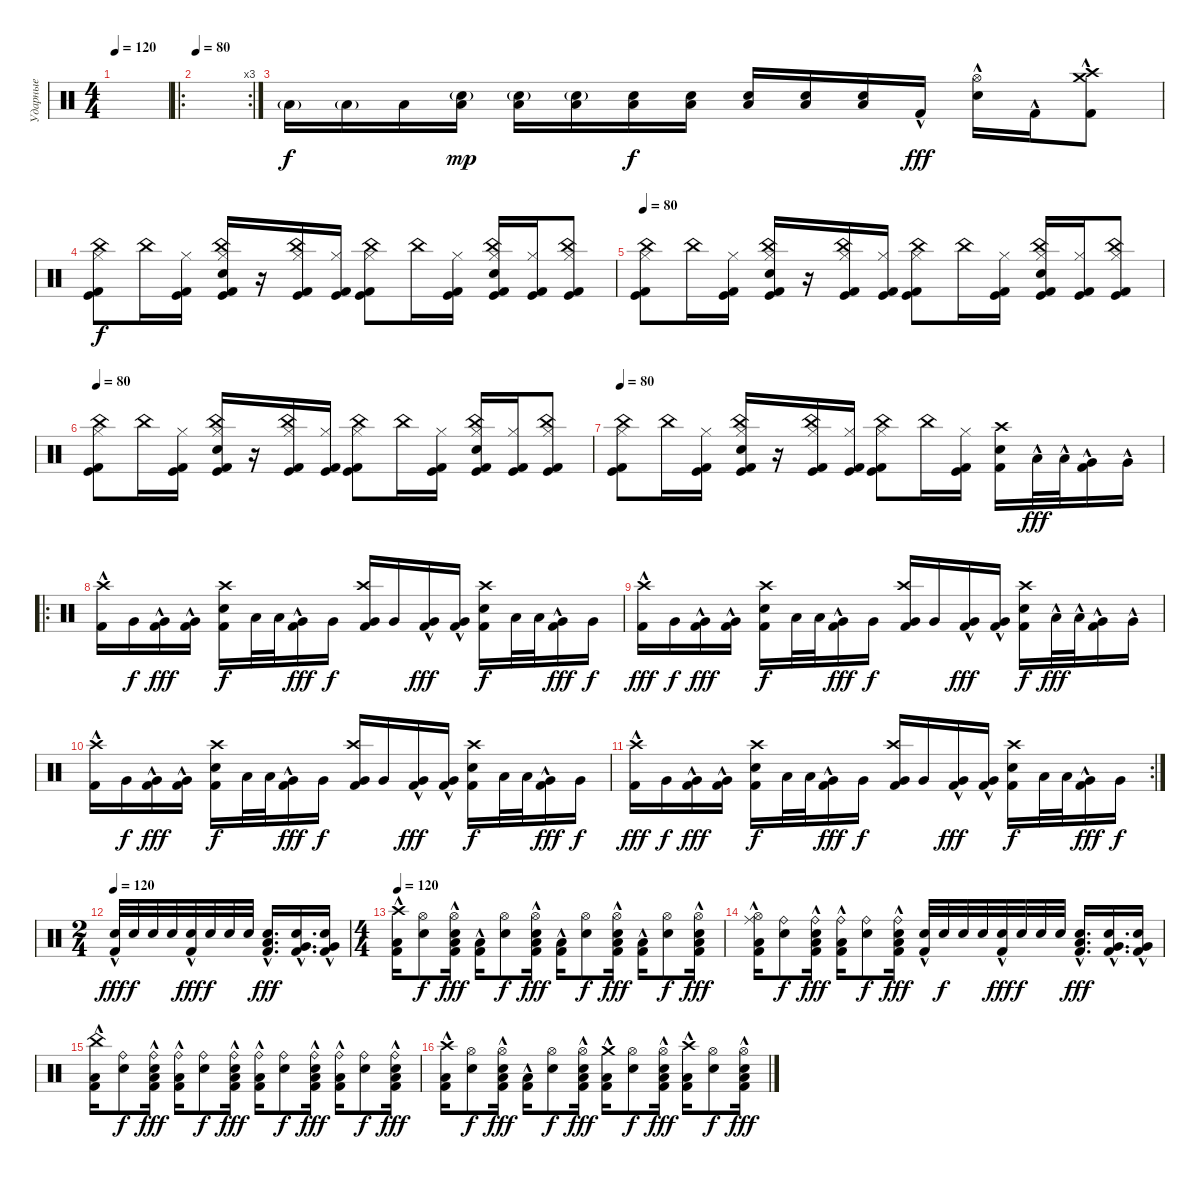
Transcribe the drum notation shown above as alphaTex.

\track ("Ударные" "Ударные") {instrument percussion}
\staff {score}
\articulation defaults
\ts (4 4)
\tempo 120
\tempo 80
\tempo 120
\clef neutral
\ks c
|
\ro
\rc 3
\tempo 80
|
"Low Floor Tom (hit)"{g}.16 "Low Floor Tom (hit)"{g}.16 "Low Floor Tom (hit)".16{dy f} ("Low Floor Tom (hit)" "Electric Snare (hit)"{g}).16{dy mp} ("Low Floor Tom (hit)" "Electric Snare (hit)"{g}).16 ("Low Floor Tom (hit)" "Electric Snare (hit)"{g}).16 ("Low Floor Tom (hit)" "Electric Snare (hit)").16{dy f} ("Low Floor Tom (hit)" "Electric Snare (hit)").16 ("Low Floor Tom (hit)" "Electric Snare (hit)").16 ("Low Floor Tom (hit)" "Electric Snare (hit)").16 ("Low Floor Tom (hit)" "Electric Snare (hit)").16 "Kick (hit) 2"{hac}.16{dy fff} ("Hi-Hat (open)" "Electric Snare (hit)"{hac}).16 "Kick (hit) 2"{hac}.16 ("Crash high (hit)" "Crash medium (hit)" "Kick (hit) 2"{hac}).8 |
("China (hit)" "Hi-Hat (closed)" "Kick (hit)" "Kick (hit) 2").8{dy f} "China (hit)".16 ("Hi-Hat (closed)" "Kick (hit)" "Kick (hit) 2").16 ("China (hit)" "Electric Snare (hit)" "Hi-Hat (closed)" "Kick (hit)" "Kick (hit) 2").16 r.16 ("China (hit)" "Hi-Hat (closed)" "Kick (hit)" "Kick (hit) 2").16 ("Hi-Hat (closed)" "Kick (hit)" "Kick (hit) 2").16 ("China (hit)" "Hi-Hat (closed)" "Kick (hit)" "Kick (hit) 2").8 "China (hit)".16 ("Hi-Hat (closed)" "Kick (hit)" "Kick (hit) 2").16 ("China (hit)" "Electric Snare (hit)" "Hi-Hat (closed)" "Kick (hit)" "Kick (hit) 2").16 ("Hi-Hat (closed)" "Kick (hit)" "Kick (hit) 2").16 ("China (hit)" "Hi-Hat (closed)" "Kick (hit)" "Kick (hit) 2").8 |
\tempo 80
("China (hit)" "Hi-Hat (closed)" "Kick (hit)" "Kick (hit) 2").8 "China (hit)".16 ("Hi-Hat (closed)" "Kick (hit)" "Kick (hit) 2").16 ("China (hit)" "Electric Snare (hit)" "Hi-Hat (closed)" "Kick (hit)" "Kick (hit) 2").16 r.16 ("China (hit)" "Hi-Hat (closed)" "Kick (hit)" "Kick (hit) 2").16 ("Hi-Hat (closed)" "Kick (hit)" "Kick (hit) 2").16 ("China (hit)" "Hi-Hat (closed)" "Kick (hit)" "Kick (hit) 2").8 "China (hit)".16 ("Hi-Hat (closed)" "Kick (hit)" "Kick (hit) 2").16 ("China (hit)" "Electric Snare (hit)" "Hi-Hat (closed)" "Kick (hit)" "Kick (hit) 2").16 ("Hi-Hat (closed)" "Kick (hit)" "Kick (hit) 2").16 ("China (hit)" "Hi-Hat (closed)" "Kick (hit)" "Kick (hit) 2").8 |
\tempo 80
("China (hit)" "Hi-Hat (closed)" "Kick (hit)" "Kick (hit) 2").8 "China (hit)".16 ("Hi-Hat (closed)" "Kick (hit)" "Kick (hit) 2").16 ("China (hit)" "Electric Snare (hit)" "Hi-Hat (closed)" "Kick (hit)" "Kick (hit) 2").16 r.16 ("China (hit)" "Hi-Hat (closed)" "Kick (hit)" "Kick (hit) 2").16 ("Hi-Hat (closed)" "Kick (hit)" "Kick (hit) 2").16 ("China (hit)" "Hi-Hat (closed)" "Kick (hit)" "Kick (hit) 2").8 "China (hit)".16 ("Hi-Hat (closed)" "Kick (hit)" "Kick (hit) 2").16 ("China (hit)" "Electric Snare (hit)" "Hi-Hat (closed)" "Kick (hit)" "Kick (hit) 2").16 ("Hi-Hat (closed)" "Kick (hit)" "Kick (hit) 2").16 ("China (hit)" "Hi-Hat (closed)" "Kick (hit)" "Kick (hit) 2").8 |
\tempo 80
("China (hit)" "Hi-Hat (closed)" "Kick (hit)" "Kick (hit) 2").8 "China (hit)".16 ("Hi-Hat (closed)" "Kick (hit)" "Kick (hit) 2").16 ("China (hit)" "Electric Snare (hit)" "Hi-Hat (closed)" "Kick (hit)" "Kick (hit) 2").16 r.16 ("China (hit)" "Hi-Hat (closed)" "Kick (hit)" "Kick (hit) 2").16 ("Hi-Hat (closed)" "Kick (hit)" "Kick (hit) 2").16 ("China (hit)" "Hi-Hat (closed)" "Kick (hit)" "Kick (hit) 2").8 "China (hit)".16 ("Hi-Hat (closed)" "Kick (hit)" "Kick (hit) 2").16 ("Crash high (hit)" "Electric Snare (hit)" "Kick (hit) 2").16 "Low Tom (hit)"{hac}.32{dy fff} "Low Tom (hit)"{hac}.32 ("Very Low Tom (hit)" "Kick (hit) 2"{hac}).16 "Very Low Tom (hit)"{hac}.16 |
\ro
("Crash high (hit)" "Kick (hit) 2"{hac}).16 "Very Low Tom (hit)".16{dy f} ("Very Low Tom (hit)" "Kick (hit) 2"{hac}).16{dy fff} ("Very Low Tom (hit)" "Kick (hit) 2"{hac}).16 ("Crash high (hit)" "Electric Snare (hit)" "Kick (hit) 2").16{dy f} "Low Tom (hit)".32 "Low Tom (hit)".32 ("Very Low Tom (hit)" "Kick (hit) 2"{hac}).16{dy fff} "Very Low Tom (hit)".16{dy f} ("Crash high (hit)" "Very Low Tom (hit)" "Kick (hit) 2").16 "Very Low Tom (hit)".16 ("Very Low Tom (hit)" "Kick (hit) 2"{hac}).16{dy fff} ("Very Low Tom (hit)" "Kick (hit) 2"{hac}).16 ("Crash high (hit)" "Electric Snare (hit)" "Kick (hit) 2").16{dy f} "Low Tom (hit)".32 "Low Tom (hit)".32 ("Very Low Tom (hit)" "Kick (hit) 2"{hac}).16{dy fff} "Very Low Tom (hit)".16{dy f} |
("Crash high (hit)" "Kick (hit) 2"{hac}).16{dy fff} "Very Low Tom (hit)".16{dy f} ("Very Low Tom (hit)" "Kick (hit) 2"{hac}).16{dy fff} ("Very Low Tom (hit)" "Kick (hit) 2"{hac}).16 ("Crash high (hit)" "Electric Snare (hit)" "Kick (hit) 2").16{dy f} "Low Tom (hit)".32 "Low Tom (hit)".32 ("Very Low Tom (hit)" "Kick (hit) 2"{hac}).16{dy fff} "Very Low Tom (hit)".16{dy f} ("Crash high (hit)" "Very Low Tom (hit)" "Kick (hit) 2").16 "Very Low Tom (hit)".16 ("Very Low Tom (hit)" "Kick (hit) 2"{hac}).16{dy fff} ("Very Low Tom (hit)" "Kick (hit) 2"{hac}).16 ("Crash high (hit)" "Electric Snare (hit)" "Kick (hit) 2").16{dy f} "Low Tom (hit)"{hac}.32{dy fff} "Low Tom (hit)"{hac}.32 ("Very Low Tom (hit)"{hac} "Kick (hit) 2"{hac}).16 "Very Low Tom (hit)"{hac}.16 |
("Crash high (hit)" "Kick (hit) 2"{hac}).16 "Very Low Tom (hit)".16{dy f} ("Very Low Tom (hit)" "Kick (hit) 2"{hac}).16{dy fff} ("Very Low Tom (hit)" "Kick (hit) 2"{hac}).16 ("Crash high (hit)" "Electric Snare (hit)" "Kick (hit) 2").16{dy f} "Low Tom (hit)".32 "Low Tom (hit)".32 ("Very Low Tom (hit)" "Kick (hit) 2"{hac}).16{dy fff} "Very Low Tom (hit)".16{dy f} ("Crash high (hit)" "Very Low Tom (hit)" "Kick (hit) 2").16 "Very Low Tom (hit)".16 ("Very Low Tom (hit)" "Kick (hit) 2"{hac}).16{dy fff} ("Very Low Tom (hit)" "Kick (hit) 2"{hac}).16 ("Crash high (hit)" "Electric Snare (hit)" "Kick (hit) 2").16{dy f} "Low Tom (hit)".32 "Low Tom (hit)".32 ("Very Low Tom (hit)" "Kick (hit) 2"{hac}).16{dy fff} "Very Low Tom (hit)".16{dy f} |
\rc 2
("Crash high (hit)" "Kick (hit) 2"{hac}).16{dy fff} "Very Low Tom (hit)".16{dy f} ("Very Low Tom (hit)" "Kick (hit) 2"{hac}).16{dy fff} ("Very Low Tom (hit)" "Kick (hit) 2"{hac}).16 ("Crash high (hit)" "Electric Snare (hit)" "Kick (hit) 2").16{dy f} "Low Tom (hit)".32 "Low Tom (hit)".32 ("Very Low Tom (hit)" "Kick (hit) 2"{hac}).16{dy fff} "Very Low Tom (hit)".16{dy f} ("Crash high (hit)" "Very Low Tom (hit)" "Kick (hit) 2").16 "Very Low Tom (hit)".16 ("Very Low Tom (hit)" "Kick (hit) 2"{hac}).16{dy fff} ("Very Low Tom (hit)" "Kick (hit) 2"{hac}).16 ("Crash high (hit)" "Electric Snare (hit)" "Kick (hit) 2").16{dy f} "Low Tom (hit)".32 "Low Tom (hit)".32 ("Very Low Tom (hit)" "Kick (hit) 2"{hac}).16{dy fff} "Very Low Tom (hit)".16{dy f} |
\ts (2 4)
\tempo 120
("Electric Snare (hit)"{hac} "Kick (hit) 2"{hac}).32{dy fff} "Electric Snare (hit)".32{dy f} "Electric Snare (hit)".32 "Electric Snare (hit)".32 ("Electric Snare (hit)"{hac} "Kick (hit) 2").32{dy fff} "Electric Snare (hit)".32{dy f} "Electric Snare (hit)".32 "Electric Snare (hit)".32 ("Electric Snare (hit)" "Low Tom (hit)"{hac} "Kick (hit) 2").16{d dy fff} ("Electric Snare (hit)" "Very Low Tom (hit)"{hac} "Kick (hit) 2").16{d} ("Electric Snare (hit)" "Very Low Tom (hit)"{hac} "Kick (hit) 2").16 |
\ts (4 4)
\tempo 120
("Crash high (hit)" "Low Floor Tom (hit)" "Kick (hit) 2"{hac}).16 ("Hi-Hat (open)" "Electric Snare (hit)").8{dy f} ("Hi-Hat (open)" "Low Floor Tom (hit)" "Electric Snare (hit)" "Kick (hit) 2"{hac}).16{dy fff} ("Low Floor Tom (hit)" "Kick (hit) 2"{hac}).16 ("Hi-Hat (open)" "Electric Snare (hit)").8{dy f} ("Hi-Hat (open)" "Low Floor Tom (hit)" "Electric Snare (hit)" "Kick (hit) 2"{hac}).16{dy fff} ("Low Floor Tom (hit)" "Kick (hit) 2"{hac}).16 ("Hi-Hat (open)" "Electric Snare (hit)").8{dy f} ("Hi-Hat (open)" "Low Floor Tom (hit)" "Electric Snare (hit)" "Kick (hit) 2"{hac}).16{dy fff} ("Low Floor Tom (hit)" "Kick (hit) 2"{hac}).16 ("Hi-Hat (open)" "Electric Snare (hit)").8{dy f} ("Hi-Hat (open)" "Low Floor Tom (hit)" "Electric Snare (hit)" "Kick (hit) 2"{hac}).16{dy fff} |
("Ride (middle)" "Hi-Hat (open)" "Low Floor Tom (hit)" "Kick (hit) 2"{hac}).16 ("Ride (bell)" "Electric Snare (hit)").8{dy f} ("Ride (bell)" "Low Floor Tom (hit)" "Electric Snare (hit)" "Kick (hit) 2"{hac}).16{dy fff} ("Ride (bell)" "Low Floor Tom (hit)" "Kick (hit) 2"{hac}).16 ("Ride (bell)" "Electric Snare (hit)").8{dy f} ("Ride (bell)" "Low Floor Tom (hit)" "Electric Snare (hit)" "Kick (hit) 2"{hac}).16{dy fff} ("Electric Snare (hit)"{hac} "Kick (hit) 2"{hac}).32 "Electric Snare (hit)".32{dy f} "Electric Snare (hit)".32 "Electric Snare (hit)".32 ("Electric Snare (hit)"{hac} "Kick (hit) 2").32{dy fff} "Electric Snare (hit)".32{dy f} "Electric Snare (hit)".32 "Electric Snare (hit)".32 ("Electric Snare (hit)" "Low Tom (hit)"{hac} "Kick (hit) 2").16{d dy fff} ("Electric Snare (hit)" "Very Low Tom (hit)"{hac} "Kick (hit) 2").16{d} ("Electric Snare (hit)" "Very Low Tom (hit)"{hac} "Kick (hit) 2").16 |
("China (hit)" "Low Floor Tom (hit)" "Kick (hit) 2"{hac}).16 ("Ride (bell)" "Electric Snare (hit)").8{dy f} ("Ride (bell)" "Low Floor Tom (hit)" "Electric Snare (hit)" "Kick (hit) 2"{hac}).16{dy fff} ("Ride (bell)" "Low Floor Tom (hit)" "Kick (hit) 2"{hac}).16 ("Ride (bell)" "Electric Snare (hit)").8{dy f} ("Ride (bell)" "Low Floor Tom (hit)" "Electric Snare (hit)" "Kick (hit) 2"{hac}).16{dy fff} ("Ride (bell)" "Low Floor Tom (hit)" "Kick (hit) 2"{hac}).16 ("Ride (bell)" "Electric Snare (hit)").8{dy f} ("Ride (bell)" "Low Floor Tom (hit)" "Electric Snare (hit)" "Kick (hit) 2"{hac}).16{dy fff} ("Ride (bell)" "Low Floor Tom (hit)" "Kick (hit) 2"{hac}).16 ("Ride (bell)" "Electric Snare (hit)").8{dy f} ("Ride (bell)" "Low Floor Tom (hit)" "Electric Snare (hit)" "Kick (hit) 2"{hac}).16{dy fff} |
("Crash high (hit)" "Low Floor Tom (hit)" "Kick (hit) 2"{hac}).16 ("Hi-Hat (open)" "Electric Snare (hit)").8{dy f} ("Hi-Hat (open)" "Low Floor Tom (hit)" "Electric Snare (hit)" "Kick (hit) 2"{hac}).16{dy fff} ("Low Floor Tom (hit)" "Kick (hit) 2"{hac}).16 ("Hi-Hat (open)" "Electric Snare (hit)").8{dy f} ("Hi-Hat (open)" "Low Floor Tom (hit)" "Electric Snare (hit)" "Kick (hit) 2"{hac}).16{dy fff} ("Crash medium (hit)" "Low Floor Tom (hit)" "Kick (hit) 2"{hac}).16 ("Hi-Hat (open)" "Electric Snare (hit)").8{dy f} ("Hi-Hat (open)" "Low Floor Tom (hit)" "Electric Snare (hit)" "Kick (hit) 2"{hac}).16{dy fff} ("Crash high (hit)" "Low Floor Tom (hit)" "Kick (hit) 2"{hac}).16 ("Hi-Hat (open)" "Electric Snare (hit)").8{dy f} ("Hi-Hat (open)" "Low Floor Tom (hit)" "Electric Snare (hit)" "Kick (hit) 2"{hac}).16{dy fff}
